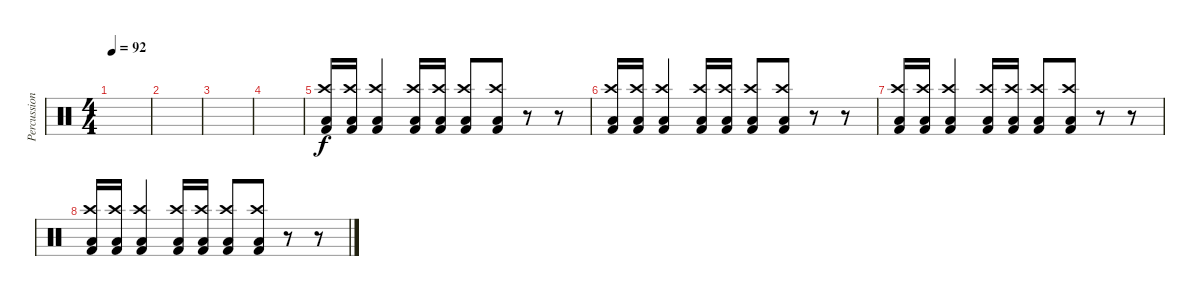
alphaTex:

\track ("Percussions" "Percussion") {instrument percussion}
\staff {score}
\articulation defaults
\ts (4 4)
\tempo 92
\clef neutral
\ks c
|
|
|
|
("Kick (hit) 2" "Crash high (hit)" "Low Tom (hit)").16 ("Kick (hit) 2" "Crash high (hit)" "Low Tom (hit)").16 ("Kick (hit) 2" "Crash high (hit)" "Low Tom (hit)").4 ("Kick (hit) 2" "Crash high (hit)" "Low Tom (hit)").16 ("Crash high (hit)" "Low Tom (hit)" "Kick (hit) 2").16 ("Low Tom (hit)" "Crash high (hit)" "Kick (hit) 2").8 ("Kick (hit) 2" "Low Tom (hit)" "Crash high (hit)").8 r.8 r.8 |
("Kick (hit) 2" "Crash high (hit)" "Low Tom (hit)").16 ("Kick (hit) 2" "Crash high (hit)" "Low Tom (hit)").16 ("Kick (hit) 2" "Crash high (hit)" "Low Tom (hit)").4 ("Kick (hit) 2" "Crash high (hit)" "Low Tom (hit)").16 ("Crash high (hit)" "Low Tom (hit)" "Kick (hit) 2").16 ("Low Tom (hit)" "Crash high (hit)" "Kick (hit) 2").8 ("Kick (hit) 2" "Low Tom (hit)" "Crash high (hit)").8 r.8 r.8 |
("Kick (hit) 2" "Crash high (hit)" "Low Tom (hit)").16 ("Kick (hit) 2" "Crash high (hit)" "Low Tom (hit)").16 ("Kick (hit) 2" "Crash high (hit)" "Low Tom (hit)").4 ("Kick (hit) 2" "Crash high (hit)" "Low Tom (hit)").16 ("Crash high (hit)" "Low Tom (hit)" "Kick (hit) 2").16 ("Low Tom (hit)" "Crash high (hit)" "Kick (hit) 2").8 ("Kick (hit) 2" "Low Tom (hit)" "Crash high (hit)").8 r.8 r.8 |
("Kick (hit) 2" "Crash high (hit)" "Low Tom (hit)").16 ("Kick (hit) 2" "Crash high (hit)" "Low Tom (hit)").16 ("Kick (hit) 2" "Crash high (hit)" "Low Tom (hit)").4 ("Kick (hit) 2" "Crash high (hit)" "Low Tom (hit)").16 ("Crash high (hit)" "Low Tom (hit)" "Kick (hit) 2").16 ("Low Tom (hit)" "Crash high (hit)" "Kick (hit) 2").8 ("Kick (hit) 2" "Low Tom (hit)" "Crash high (hit)").8 r.8 r.8
